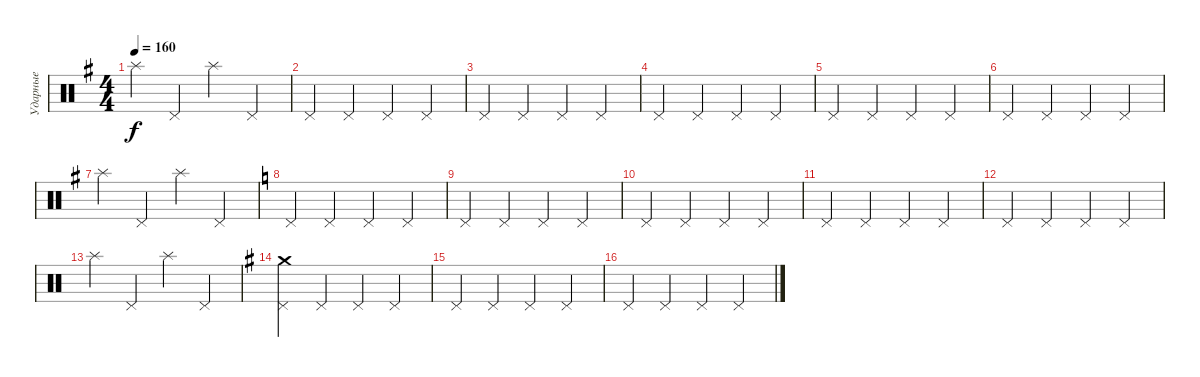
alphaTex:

\track ("Ударные" "Ударные") {instrument percussion}
\staff {score}
\articulation defaults
\ts (4 4)
\tempo 160
\clef neutral
\ks g "Splash (hit)".4{dy f} "Pedal Hi-Hat (hit)".4 "Splash (hit)".4 "Pedal Hi-Hat (hit)".4
|
"Pedal Hi-Hat (hit)".4 "Pedal Hi-Hat (hit)".4 "Pedal Hi-Hat (hit)".4 "Pedal Hi-Hat (hit)".4 |
"Pedal Hi-Hat (hit)".4 "Pedal Hi-Hat (hit)".4 "Pedal Hi-Hat (hit)".4 "Pedal Hi-Hat (hit)".4 |
"Pedal Hi-Hat (hit)".4 "Pedal Hi-Hat (hit)".4 "Pedal Hi-Hat (hit)".4 "Pedal Hi-Hat (hit)".4 |
"Pedal Hi-Hat (hit)".4 "Pedal Hi-Hat (hit)".4 "Pedal Hi-Hat (hit)".4 "Pedal Hi-Hat (hit)".4 |
"Pedal Hi-Hat (hit)".4 "Pedal Hi-Hat (hit)".4 "Pedal Hi-Hat (hit)".4 "Pedal Hi-Hat (hit)".4 |
"Splash (hit)".4 "Pedal Hi-Hat (hit)".4 "Splash (hit)".4 "Pedal Hi-Hat (hit)".4 |
\ks c "Pedal Hi-Hat (hit)".4 "Pedal Hi-Hat (hit)".4 "Pedal Hi-Hat (hit)".4 "Pedal Hi-Hat (hit)".4
|
"Pedal Hi-Hat (hit)".4 "Pedal Hi-Hat (hit)".4 "Pedal Hi-Hat (hit)".4 "Pedal Hi-Hat (hit)".4 |
"Pedal Hi-Hat (hit)".4 "Pedal Hi-Hat (hit)".4 "Pedal Hi-Hat (hit)".4 "Pedal Hi-Hat (hit)".4 |
"Pedal Hi-Hat (hit)".4 "Pedal Hi-Hat (hit)".4 "Pedal Hi-Hat (hit)".4 "Pedal Hi-Hat (hit)".4 |
"Pedal Hi-Hat (hit)".4 "Pedal Hi-Hat (hit)".4 "Pedal Hi-Hat (hit)".4 "Pedal Hi-Hat (hit)".4 |
"Splash (hit)".4 "Pedal Hi-Hat (hit)".4 "Splash (hit)".4 "Pedal Hi-Hat (hit)".4 |
\ks g
("Pedal Hi-Hat (hit)" "Crash medium (hit)").4 "Pedal Hi-Hat (hit)".4 "Pedal Hi-Hat (hit)".4 "Pedal Hi-Hat (hit)".4 |
"Pedal Hi-Hat (hit)".4 "Pedal Hi-Hat (hit)".4 "Pedal Hi-Hat (hit)".4 "Pedal Hi-Hat (hit)".4 |
"Pedal Hi-Hat (hit)".4 "Pedal Hi-Hat (hit)".4 "Pedal Hi-Hat (hit)".4 "Pedal Hi-Hat (hit)".4
